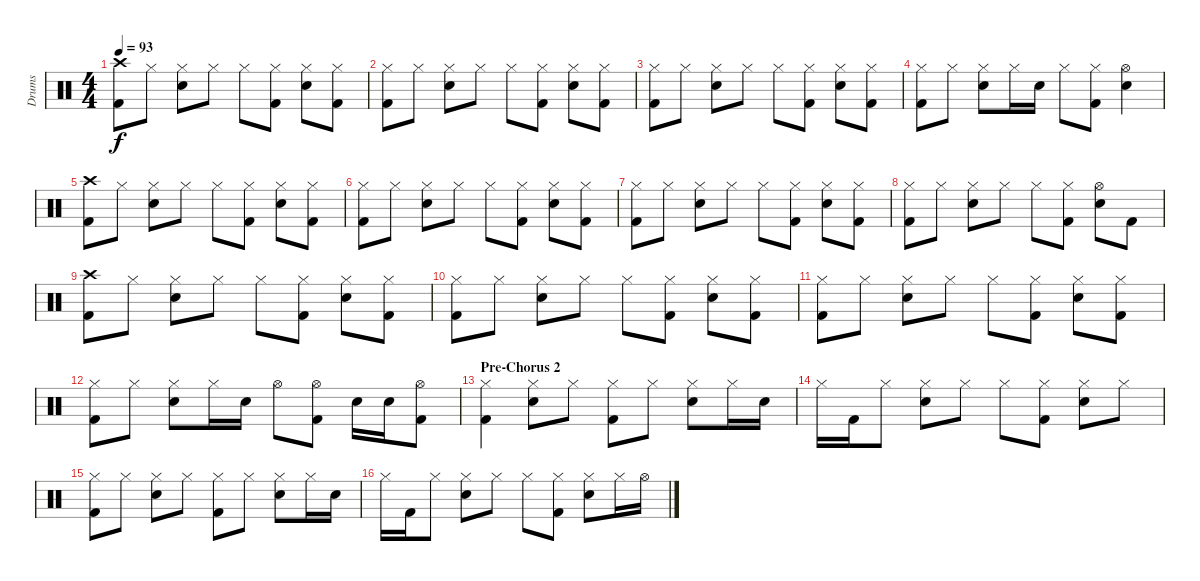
\track ("Drums" "Drums") {instrument percussion}
\staff {score}
\articulation defaults
\ts (4 4)
\tempo 93
\clef neutral
\ks c
("Crash high (hit)" "Kick (hit) 2").8{dy f} "Hi-Hat (closed)".8 ("Hi-Hat (closed)" "Electric Snare (hit)").8 "Hi-Hat (closed)".8 "Hi-Hat (closed)".8 ("Hi-Hat (closed)" "Kick (hit) 2").8 ("Hi-Hat (closed)" "Electric Snare (hit)").8 ("Hi-Hat (closed)" "Kick (hit) 2").8 |
("Hi-Hat (closed)" "Kick (hit) 2").8 "Hi-Hat (closed)".8 ("Hi-Hat (closed)" "Electric Snare (hit)").8 "Hi-Hat (closed)".8 "Hi-Hat (closed)".8 ("Hi-Hat (closed)" "Kick (hit) 2").8 ("Hi-Hat (closed)" "Electric Snare (hit)").8 ("Hi-Hat (closed)" "Kick (hit) 2").8 |
("Hi-Hat (closed)" "Kick (hit) 2").8 "Hi-Hat (closed)".8 ("Hi-Hat (closed)" "Electric Snare (hit)").8 "Hi-Hat (closed)".8 "Hi-Hat (closed)".8 ("Hi-Hat (closed)" "Kick (hit) 2").8 ("Hi-Hat (closed)" "Electric Snare (hit)").8 ("Hi-Hat (closed)" "Kick (hit) 2").8 |
("Hi-Hat (closed)" "Kick (hit) 2").8 "Hi-Hat (closed)".8 ("Hi-Hat (closed)" "Electric Snare (hit)").8 "Hi-Hat (closed)".16 "Electric Snare (hit)".16 "Hi-Hat (closed)".8 ("Hi-Hat (closed)" "Kick (hit) 2").8 ("Hi-Hat (open)" "Electric Snare (hit)").4 |
("Crash high (hit)" "Kick (hit) 2").8 "Hi-Hat (closed)".8 ("Hi-Hat (closed)" "Electric Snare (hit)").8 "Hi-Hat (closed)".8 "Hi-Hat (closed)".8 ("Hi-Hat (closed)" "Kick (hit) 2").8 ("Hi-Hat (closed)" "Electric Snare (hit)").8 ("Hi-Hat (closed)" "Kick (hit) 2").8 |
("Hi-Hat (closed)" "Kick (hit) 2").8 "Hi-Hat (closed)".8 ("Hi-Hat (closed)" "Electric Snare (hit)").8 "Hi-Hat (closed)".8 "Hi-Hat (closed)".8 ("Hi-Hat (closed)" "Kick (hit) 2").8 ("Hi-Hat (closed)" "Electric Snare (hit)").8 ("Hi-Hat (closed)" "Kick (hit) 2").8 |
("Hi-Hat (closed)" "Kick (hit) 2").8 "Hi-Hat (closed)".8 ("Hi-Hat (closed)" "Electric Snare (hit)").8 "Hi-Hat (closed)".8 "Hi-Hat (closed)".8 ("Hi-Hat (closed)" "Kick (hit) 2").8 ("Hi-Hat (closed)" "Electric Snare (hit)").8 ("Hi-Hat (closed)" "Kick (hit) 2").8 |
("Hi-Hat (closed)" "Kick (hit) 2").8 "Hi-Hat (closed)".8 ("Hi-Hat (closed)" "Electric Snare (hit)").8 "Hi-Hat (closed)".8 "Hi-Hat (closed)".8 ("Hi-Hat (closed)" "Kick (hit) 2").8 ("Hi-Hat (open)" "Electric Snare (hit)").8 "Kick (hit) 2".8 |
("Crash high (hit)" "Kick (hit) 2").8 "Hi-Hat (closed)".8 ("Hi-Hat (closed)" "Electric Snare (hit)").8 "Hi-Hat (closed)".8 "Hi-Hat (closed)".8 ("Hi-Hat (closed)" "Kick (hit) 2").8 ("Hi-Hat (closed)" "Electric Snare (hit)").8 ("Hi-Hat (closed)" "Kick (hit) 2").8 |
("Hi-Hat (closed)" "Kick (hit) 2").8 "Hi-Hat (closed)".8 ("Hi-Hat (closed)" "Electric Snare (hit)").8 "Hi-Hat (closed)".8 "Hi-Hat (closed)".8 ("Hi-Hat (closed)" "Kick (hit) 2").8 ("Hi-Hat (closed)" "Electric Snare (hit)").8 ("Hi-Hat (closed)" "Kick (hit) 2").8 |
("Hi-Hat (closed)" "Kick (hit) 2").8 "Hi-Hat (closed)".8 ("Hi-Hat (closed)" "Electric Snare (hit)").8 "Hi-Hat (closed)".8 "Hi-Hat (closed)".8 ("Hi-Hat (closed)" "Kick (hit) 2").8 ("Hi-Hat (closed)" "Electric Snare (hit)").8 ("Hi-Hat (closed)" "Kick (hit) 2").8 |
("Hi-Hat (closed)" "Kick (hit) 2").8 "Hi-Hat (closed)".8 ("Hi-Hat (closed)" "Electric Snare (hit)").8 "Hi-Hat (closed)".16 "Electric Snare (hit)".16 "Hi-Hat (open)".8 ("Hi-Hat (open)" "Kick (hit) 2").8 "Electric Snare (hit)".16 "Electric Snare (hit)".16 ("Hi-Hat (open)" "Kick (hit) 2").8 |
\section ("" "Pre-Chorus 2")
("Hi-Hat (closed)" "Kick (hit) 2").4 ("Hi-Hat (closed)" "Electric Snare (hit)").8 "Hi-Hat (closed)".8 ("Hi-Hat (closed)" "Kick (hit) 2").8 "Hi-Hat (closed)".8 ("Hi-Hat (closed)" "Electric Snare (hit)").8 "Hi-Hat (closed)".16 "Electric Snare (hit)".16 |
"Hi-Hat (closed)".16 "Kick (hit) 2".16 "Hi-Hat (closed)".8 ("Hi-Hat (closed)" "Electric Snare (hit)").8 "Hi-Hat (closed)".8 "Hi-Hat (closed)".8 ("Hi-Hat (closed)" "Kick (hit) 2").8 ("Hi-Hat (closed)" "Electric Snare (hit)").8 "Hi-Hat (closed)".8 |
("Hi-Hat (closed)" "Kick (hit) 2").8 "Hi-Hat (closed)".8 ("Hi-Hat (closed)" "Electric Snare (hit)").8 "Hi-Hat (closed)".8 ("Hi-Hat (closed)" "Kick (hit) 2").8 "Hi-Hat (closed)".8 ("Hi-Hat (closed)" "Electric Snare (hit)").8 "Hi-Hat (closed)".16 "Electric Snare (hit)".16 |
"Hi-Hat (closed)".16 "Kick (hit) 2".16 "Hi-Hat (closed)".8 ("Hi-Hat (closed)" "Electric Snare (hit)").8 "Hi-Hat (closed)".8 "Hi-Hat (closed)".8 ("Hi-Hat (closed)" "Kick (hit) 2").8 ("Hi-Hat (closed)" "Electric Snare (hit)").8 "Hi-Hat (closed)".16 "Hi-Hat (open)".16
